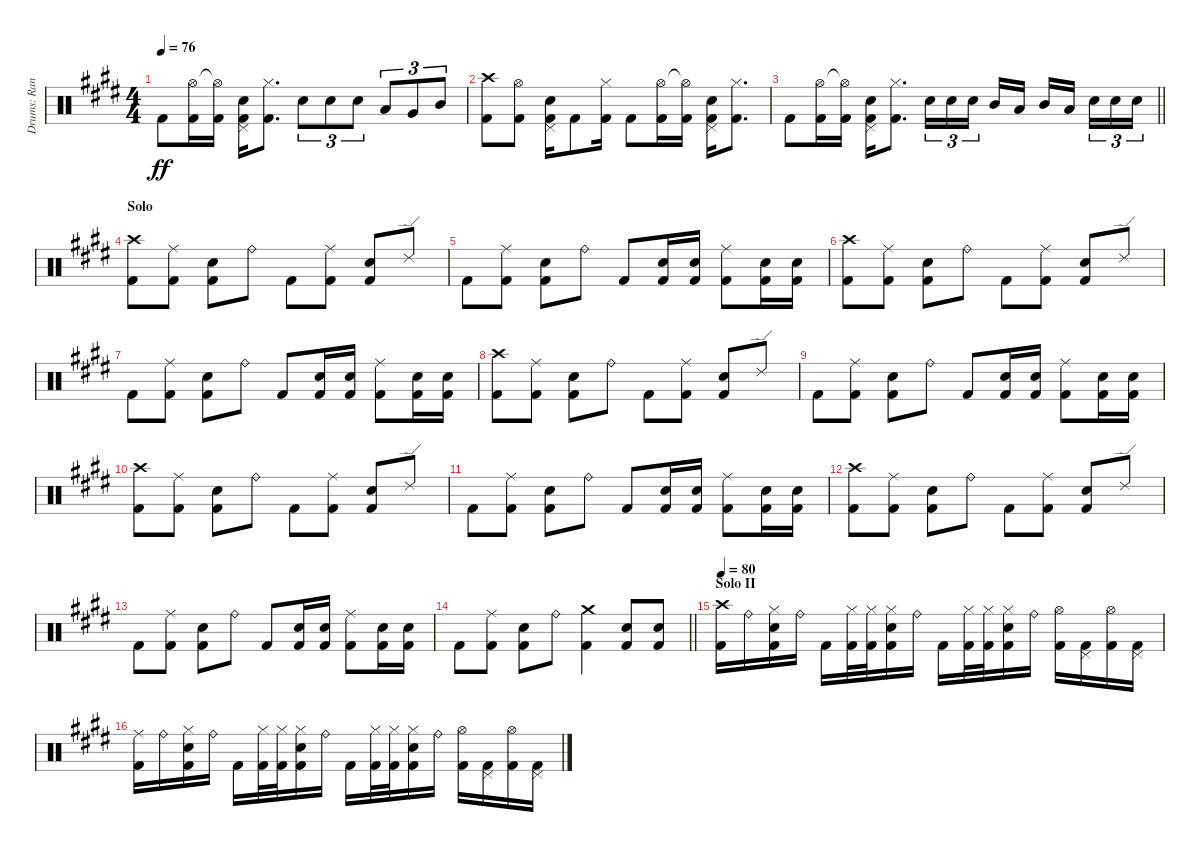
\track ("Drums: Randy" "Drums: Ran") {instrument percussion}
\staff {score}
\articulation defaults
\ts (4 4)
\tempo 76
\clef neutral
\ks e "Kick (hit) 2".8{dy ff}
("Hi-Hat (open)" "Kick (hit) 2").16 ("Hi-Hat (open)"{t} "Kick (hit) 2").16 ("Pedal Hi-Hat (hit)" "Snare (hit) 2" "Kick (hit) 2").16 ("Hi-Hat (closed)" "Kick (hit) 2").8{d} "Snare (hit) 2".8{tu (3 2)} "Snare (hit) 2".8{tu (3 2)} "Snare (hit) 2".8{tu (3 2)} "Low Tom (hit)".8{tu (3 2)} "Very Low Tom (hit)".8{tu (3 2)} "Mid Tom (hit)".8{tu (3 2)} |
("Crash high (hit)" "Kick (hit) 2").8 ("Hi-Hat (open)" "Kick (hit) 2").8 ("Pedal Hi-Hat (hit)" "Snare (hit) 2" "Kick (hit) 2").16 "Kick (hit) 2".8 ("Hi-Hat (closed)" "Kick (hit) 2").16 "Kick (hit) 2".8 ("Hi-Hat (open)" "Kick (hit) 2").16 ("Hi-Hat (open)"{t} "Kick (hit) 2").16 ("Pedal Hi-Hat (hit)" "Snare (hit) 2" "Kick (hit) 2").16 ("Hi-Hat (closed)" "Kick (hit) 2").8{d} |
\barLineRight lightlight "Kick (hit) 2".8
("Hi-Hat (open)" "Kick (hit) 2").16 ("Hi-Hat (open)"{t} "Kick (hit) 2").16 ("Pedal Hi-Hat (hit)" "Snare (hit) 2" "Kick (hit) 2").16 ("Hi-Hat (closed)" "Kick (hit) 2").8{d} "Snare (hit) 2".16{tu (3 2)} "Snare (hit) 2".16{tu (3 2)} "Snare (hit) 2".16{tu (3 2) beam splitsecondary} "Mid Tom (hit)".16 "Low Tom (hit)".16 "Mid Tom (hit)".16 "Low Tom (hit)".16{beam splitsecondary} "Snare (hit) 2".16{tu (3 2)} "Snare (hit) 2".16{tu (3 2)} "Snare (hit) 2".16{tu (3 2)} |
\section ("" "Solo")
("Crash high (hit)" "Kick (hit) 2").8 ("Ride (middle)" "Kick (hit) 2").8 ("Snare (hit) 2" "Kick (hit) 2").8 "Ride (bell)".8 "Kick (hit) 2".8 ("Ride (middle)" "Kick (hit) 2").8 ("Snare (hit) 2" "Kick (hit) 2").8 "Ride (edge) 2".8 |
"Kick (hit) 2".8 ("Ride (middle)" "Kick (hit) 2").8 ("Snare (hit) 2" "Kick (hit) 2").8 "Ride (bell)".8 "Kick (hit) 2".8 ("Snare (hit) 2" "Kick (hit) 2").16 ("Snare (hit) 2" "Kick (hit) 2").16 ("Ride (middle)" "Kick (hit) 2").8 ("Snare (hit) 2" "Kick (hit) 2").16 ("Snare (hit) 2" "Kick (hit) 2").16 |
("Crash high (hit)" "Kick (hit) 2").8 ("Ride (middle)" "Kick (hit) 2").8 ("Snare (hit) 2" "Kick (hit) 2").8 "Ride (bell)".8 "Kick (hit) 2".8 ("Ride (middle)" "Kick (hit) 2").8 ("Snare (hit) 2" "Kick (hit) 2").8 "Ride (edge) 2".8 |
"Kick (hit) 2".8 ("Ride (middle)" "Kick (hit) 2").8 ("Snare (hit) 2" "Kick (hit) 2").8 "Ride (bell)".8 "Kick (hit) 2".8 ("Snare (hit) 2" "Kick (hit) 2").16 ("Snare (hit) 2" "Kick (hit) 2").16 ("Ride (middle)" "Kick (hit) 2").8 ("Snare (hit) 2" "Kick (hit) 2").16 ("Snare (hit) 2" "Kick (hit) 2").16 |
("Crash high (hit)" "Kick (hit) 2").8 ("Ride (middle)" "Kick (hit) 2").8 ("Snare (hit) 2" "Kick (hit) 2").8 "Ride (bell)".8 "Kick (hit) 2".8 ("Ride (middle)" "Kick (hit) 2").8 ("Snare (hit) 2" "Kick (hit) 2").8 "Ride (edge) 2".8 |
"Kick (hit) 2".8 ("Ride (middle)" "Kick (hit) 2").8 ("Snare (hit) 2" "Kick (hit) 2").8 "Ride (bell)".8 "Kick (hit) 2".8 ("Snare (hit) 2" "Kick (hit) 2").16 ("Snare (hit) 2" "Kick (hit) 2").16 ("Ride (middle)" "Kick (hit) 2").8 ("Snare (hit) 2" "Kick (hit) 2").16 ("Snare (hit) 2" "Kick (hit) 2").16 |
("Crash high (hit)" "Kick (hit) 2").8 ("Ride (middle)" "Kick (hit) 2").8 ("Snare (hit) 2" "Kick (hit) 2").8 "Ride (bell)".8 "Kick (hit) 2".8 ("Ride (middle)" "Kick (hit) 2").8 ("Snare (hit) 2" "Kick (hit) 2").8 "Ride (edge) 2".8 |
"Kick (hit) 2".8 ("Ride (middle)" "Kick (hit) 2").8 ("Snare (hit) 2" "Kick (hit) 2").8 "Ride (bell)".8 "Kick (hit) 2".8 ("Snare (hit) 2" "Kick (hit) 2").16 ("Snare (hit) 2" "Kick (hit) 2").16 ("Ride (middle)" "Kick (hit) 2").8 ("Snare (hit) 2" "Kick (hit) 2").16 ("Snare (hit) 2" "Kick (hit) 2").16 |
("Crash high (hit)" "Kick (hit) 2").8 ("Ride (middle)" "Kick (hit) 2").8 ("Snare (hit) 2" "Kick (hit) 2").8 "Ride (bell)".8 "Kick (hit) 2".8 ("Ride (middle)" "Kick (hit) 2").8 ("Snare (hit) 2" "Kick (hit) 2").8 "Ride (edge) 2".8 |
"Kick (hit) 2".8 ("Ride (middle)" "Kick (hit) 2").8 ("Snare (hit) 2" "Kick (hit) 2").8 "Ride (bell)".8 "Kick (hit) 2".8 ("Snare (hit) 2" "Kick (hit) 2").16 ("Snare (hit) 2" "Kick (hit) 2").16 ("Ride (middle)" "Kick (hit) 2").8 ("Snare (hit) 2" "Kick (hit) 2").16 ("Snare (hit) 2" "Kick (hit) 2").16 |
\barLineRight lightlight "Kick (hit) 2".8
("Ride (middle)" "Kick (hit) 2").8 ("Snare (hit) 2" "Kick (hit) 2").8 "Ride (bell)".8 ("Crash medium (hit)" "Kick (hit) 2").4 ("Snare (hit) 2" "Kick (hit) 2").8 ("Snare (hit) 2" "Kick (hit) 2").8 |
\section ("" "Solo II")
\tempo 80
("Crash high (hit)" "Kick (hit) 2").16 "Ride (bell)".16 ("Hi-Hat (closed)" "Snare (hit) 2" "Kick (hit) 2").16 "Ride (bell)".16 "Kick (hit) 2".16 ("Hi-Hat (closed)" "Kick (hit) 2").32 ("Hi-Hat (closed)" "Kick (hit) 2").32 ("Hi-Hat (closed)" "Snare (hit) 2" "Kick (hit) 2").16 "Ride (bell)".16 "Kick (hit) 2".16 ("Hi-Hat (closed)" "Kick (hit) 2").32 ("Hi-Hat (closed)" "Kick (hit) 2").32 ("Hi-Hat (closed)" "Snare (hit) 2" "Kick (hit) 2").16 "Ride (bell)".16 ("Hi-Hat (open)" "Kick (hit) 2").16 ("Pedal Hi-Hat (hit)" "Kick (hit) 2").16 ("Hi-Hat (open)" "Kick (hit) 2").16 ("Pedal Hi-Hat (hit)" "Kick (hit) 2").16 |
("Ride (middle)" "Kick (hit) 2").16 "Ride (bell)".16 ("Hi-Hat (closed)" "Snare (hit) 2" "Kick (hit) 2").16 "Ride (bell)".16 "Kick (hit) 2".16 ("Hi-Hat (closed)" "Kick (hit) 2").32 ("Hi-Hat (closed)" "Kick (hit) 2").32 ("Hi-Hat (closed)" "Snare (hit) 2" "Kick (hit) 2").16 "Ride (bell)".16 "Kick (hit) 2".16 ("Hi-Hat (closed)" "Kick (hit) 2").32 ("Hi-Hat (closed)" "Kick (hit) 2").32 ("Hi-Hat (closed)" "Snare (hit) 2" "Kick (hit) 2").16 "Ride (bell)".16 ("Hi-Hat (open)" "Kick (hit) 2").16 ("Pedal Hi-Hat (hit)" "Kick (hit) 2").16 ("Hi-Hat (open)" "Kick (hit) 2").16 ("Pedal Hi-Hat (hit)" "Kick (hit) 2").16
